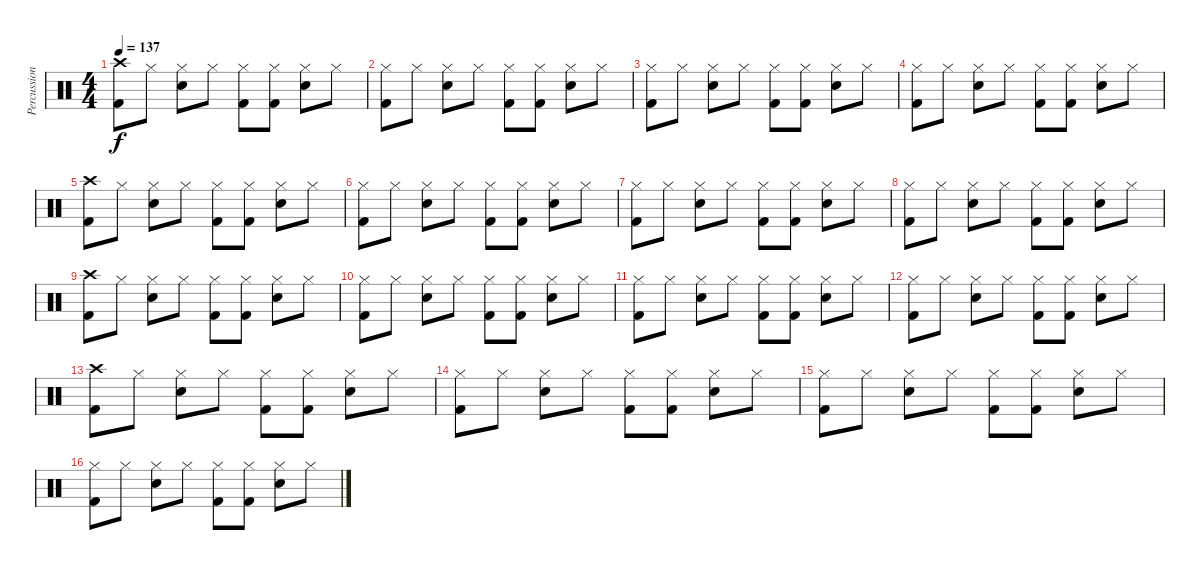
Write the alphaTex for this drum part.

\track ("Percussions" "Percussion") {instrument percussion}
\staff {score}
\articulation defaults
\ts (4 4)
\tempo 137
\clef neutral
\ks c
("Crash high (hit)" "Kick (hit) 2").8{dy f} "Hi-Hat (closed)".8 ("Hi-Hat (closed)" "Snare (hit) 2").8 "Hi-Hat (closed)".8 ("Hi-Hat (closed)" "Kick (hit) 2").8 ("Hi-Hat (closed)" "Kick (hit) 2").8 ("Hi-Hat (closed)" "Snare (hit) 2").8 "Hi-Hat (closed)".8 |
("Hi-Hat (closed)" "Kick (hit) 2").8 "Hi-Hat (closed)".8 ("Hi-Hat (closed)" "Snare (hit) 2").8 "Hi-Hat (closed)".8 ("Hi-Hat (closed)" "Kick (hit) 2").8 ("Hi-Hat (closed)" "Kick (hit) 2").8 ("Hi-Hat (closed)" "Snare (hit) 2").8 "Hi-Hat (closed)".8 |
("Hi-Hat (closed)" "Kick (hit) 2").8 "Hi-Hat (closed)".8 ("Hi-Hat (closed)" "Snare (hit) 2").8 "Hi-Hat (closed)".8 ("Hi-Hat (closed)" "Kick (hit) 2").8 ("Hi-Hat (closed)" "Kick (hit) 2").8 ("Hi-Hat (closed)" "Snare (hit) 2").8 "Hi-Hat (closed)".8 |
("Hi-Hat (closed)" "Kick (hit) 2").8 "Hi-Hat (closed)".8 ("Hi-Hat (closed)" "Snare (hit) 2").8 "Hi-Hat (closed)".8 ("Hi-Hat (closed)" "Kick (hit) 2").8 ("Hi-Hat (closed)" "Kick (hit) 2").8 ("Hi-Hat (closed)" "Snare (hit) 2").8 "Hi-Hat (closed)".8 |
("Crash high (hit)" "Kick (hit) 2").8 "Hi-Hat (closed)".8 ("Hi-Hat (closed)" "Snare (hit) 2").8 "Hi-Hat (closed)".8 ("Hi-Hat (closed)" "Kick (hit) 2").8 ("Hi-Hat (closed)" "Kick (hit) 2").8 ("Hi-Hat (closed)" "Snare (hit) 2").8 "Hi-Hat (closed)".8 |
("Hi-Hat (closed)" "Kick (hit) 2").8 "Hi-Hat (closed)".8 ("Hi-Hat (closed)" "Snare (hit) 2").8 "Hi-Hat (closed)".8 ("Hi-Hat (closed)" "Kick (hit) 2").8 ("Hi-Hat (closed)" "Kick (hit) 2").8 ("Hi-Hat (closed)" "Snare (hit) 2").8 "Hi-Hat (closed)".8 |
("Hi-Hat (closed)" "Kick (hit) 2").8 "Hi-Hat (closed)".8 ("Hi-Hat (closed)" "Snare (hit) 2").8 "Hi-Hat (closed)".8 ("Hi-Hat (closed)" "Kick (hit) 2").8 ("Hi-Hat (closed)" "Kick (hit) 2").8 ("Hi-Hat (closed)" "Snare (hit) 2").8 "Hi-Hat (closed)".8 |
("Hi-Hat (closed)" "Kick (hit) 2").8 "Hi-Hat (closed)".8 ("Hi-Hat (closed)" "Snare (hit) 2").8 "Hi-Hat (closed)".8 ("Hi-Hat (closed)" "Kick (hit) 2").8 ("Hi-Hat (closed)" "Kick (hit) 2").8 ("Hi-Hat (closed)" "Snare (hit) 2").8 "Hi-Hat (closed)".8 |
("Crash high (hit)" "Kick (hit) 2").8 "Hi-Hat (closed)".8 ("Hi-Hat (closed)" "Snare (hit) 2").8 "Hi-Hat (closed)".8 ("Hi-Hat (closed)" "Kick (hit) 2").8 ("Hi-Hat (closed)" "Kick (hit) 2").8 ("Hi-Hat (closed)" "Snare (hit) 2").8 "Hi-Hat (closed)".8 |
("Hi-Hat (closed)" "Kick (hit) 2").8 "Hi-Hat (closed)".8 ("Hi-Hat (closed)" "Snare (hit) 2").8 "Hi-Hat (closed)".8 ("Hi-Hat (closed)" "Kick (hit) 2").8 ("Hi-Hat (closed)" "Kick (hit) 2").8 ("Hi-Hat (closed)" "Snare (hit) 2").8 "Hi-Hat (closed)".8 |
("Hi-Hat (closed)" "Kick (hit) 2").8 "Hi-Hat (closed)".8 ("Hi-Hat (closed)" "Snare (hit) 2").8 "Hi-Hat (closed)".8 ("Hi-Hat (closed)" "Kick (hit) 2").8 ("Hi-Hat (closed)" "Kick (hit) 2").8 ("Hi-Hat (closed)" "Snare (hit) 2").8 "Hi-Hat (closed)".8 |
("Hi-Hat (closed)" "Kick (hit) 2").8 "Hi-Hat (closed)".8 ("Hi-Hat (closed)" "Snare (hit) 2").8 "Hi-Hat (closed)".8 ("Hi-Hat (closed)" "Kick (hit) 2").8 ("Hi-Hat (closed)" "Kick (hit) 2").8 ("Hi-Hat (closed)" "Snare (hit) 2").8 "Hi-Hat (closed)".8 |
("Crash high (hit)" "Kick (hit) 2").8 "Hi-Hat (closed)".8 ("Hi-Hat (closed)" "Snare (hit) 2").8 "Hi-Hat (closed)".8 ("Hi-Hat (closed)" "Kick (hit) 2").8 ("Hi-Hat (closed)" "Kick (hit) 2").8 ("Hi-Hat (closed)" "Snare (hit) 2").8 "Hi-Hat (closed)".8 |
("Hi-Hat (closed)" "Kick (hit) 2").8 "Hi-Hat (closed)".8 ("Hi-Hat (closed)" "Snare (hit) 2").8 "Hi-Hat (closed)".8 ("Hi-Hat (closed)" "Kick (hit) 2").8 ("Hi-Hat (closed)" "Kick (hit) 2").8 ("Hi-Hat (closed)" "Snare (hit) 2").8 "Hi-Hat (closed)".8 |
("Hi-Hat (closed)" "Kick (hit) 2").8 "Hi-Hat (closed)".8 ("Hi-Hat (closed)" "Snare (hit) 2").8 "Hi-Hat (closed)".8 ("Hi-Hat (closed)" "Kick (hit) 2").8 ("Hi-Hat (closed)" "Kick (hit) 2").8 ("Hi-Hat (closed)" "Snare (hit) 2").8 "Hi-Hat (closed)".8 |
("Hi-Hat (closed)" "Kick (hit) 2").8 "Hi-Hat (closed)".8 ("Hi-Hat (closed)" "Snare (hit) 2").8 "Hi-Hat (closed)".8 ("Hi-Hat (closed)" "Kick (hit) 2").8 ("Hi-Hat (closed)" "Kick (hit) 2").8 ("Hi-Hat (closed)" "Snare (hit) 2").8 "Hi-Hat (closed)".8
